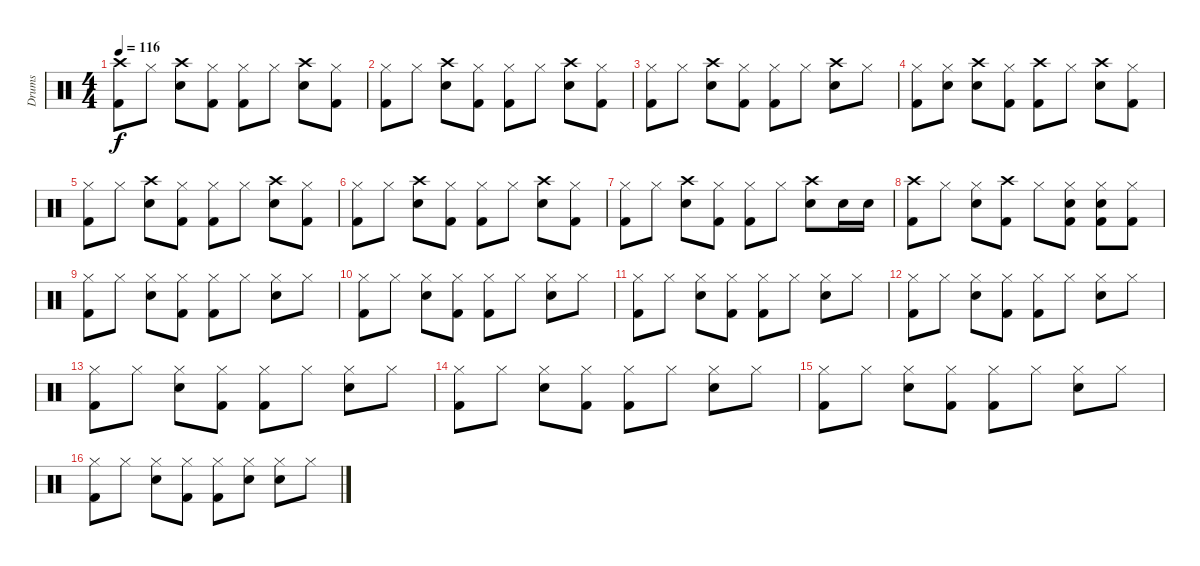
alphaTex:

\track ("Drums" "Drums") {instrument percussion}
\staff {score}
\articulation defaults
\ts (4 4)
\tempo 116
\clef neutral
\ks c
("Crash high (hit)" "Kick (hit) 2").8{dy f} "Hi-Hat (closed)".8 ("Crash high (hit)" "Electric Snare (hit)").8 ("Hi-Hat (closed)" "Kick (hit) 2").8 ("Hi-Hat (closed)" "Kick (hit) 2").8 "Hi-Hat (closed)".8 ("Crash high (hit)" "Electric Snare (hit)").8 ("Hi-Hat (closed)" "Kick (hit) 2").8 |
("Hi-Hat (closed)" "Kick (hit) 2").8 "Hi-Hat (closed)".8 ("Crash high (hit)" "Electric Snare (hit)").8 ("Hi-Hat (closed)" "Kick (hit) 2").8 ("Hi-Hat (closed)" "Kick (hit) 2").8 "Hi-Hat (closed)".8 ("Crash high (hit)" "Electric Snare (hit)").8 ("Hi-Hat (closed)" "Kick (hit) 2").8 |
("Hi-Hat (closed)" "Kick (hit) 2").8 "Hi-Hat (closed)".8 ("Crash high (hit)" "Electric Snare (hit)").8 ("Hi-Hat (closed)" "Kick (hit) 2").8 ("Hi-Hat (closed)" "Kick (hit) 2").8 "Hi-Hat (closed)".8 ("Crash high (hit)" "Electric Snare (hit)").8 "Hi-Hat (closed)".8 |
("Hi-Hat (closed)" "Kick (hit) 2").8 ("Hi-Hat (closed)" "Electric Snare (hit)").8 ("Crash high (hit)" "Electric Snare (hit)").8 ("Hi-Hat (closed)" "Kick (hit) 2").8 ("Crash high (hit)" "Kick (hit) 2").8 "Hi-Hat (closed)".8 ("Crash high (hit)" "Electric Snare (hit)").8 ("Hi-Hat (closed)" "Kick (hit) 2").8 |
("Hi-Hat (closed)" "Kick (hit) 2").8 "Hi-Hat (closed)".8 ("Crash high (hit)" "Electric Snare (hit)").8 ("Hi-Hat (closed)" "Kick (hit) 2").8 ("Hi-Hat (closed)" "Kick (hit) 2").8 "Hi-Hat (closed)".8 ("Crash high (hit)" "Electric Snare (hit)").8 ("Hi-Hat (closed)" "Kick (hit) 2").8 |
("Hi-Hat (closed)" "Kick (hit) 2").8 "Hi-Hat (closed)".8 ("Crash high (hit)" "Electric Snare (hit)").8 ("Hi-Hat (closed)" "Kick (hit) 2").8 ("Hi-Hat (closed)" "Kick (hit) 2").8 "Hi-Hat (closed)".8 ("Crash high (hit)" "Electric Snare (hit)").8 ("Hi-Hat (closed)" "Kick (hit) 2").8 |
("Hi-Hat (closed)" "Kick (hit) 2").8 "Hi-Hat (closed)".8 ("Crash high (hit)" "Electric Snare (hit)").8 ("Hi-Hat (closed)" "Kick (hit) 2").8 ("Hi-Hat (closed)" "Kick (hit) 2").8 "Hi-Hat (closed)".8 ("Crash high (hit)" "Electric Snare (hit)").8 "Electric Snare (hit)".16 "Electric Snare (hit)".16 |
("Crash high (hit)" "Kick (hit) 2").8 "Hi-Hat (closed)".8 ("Hi-Hat (closed)" "Electric Snare (hit)").8 ("Crash high (hit)" "Kick (hit) 2").8 "Hi-Hat (closed)".8 ("Hi-Hat (closed)" "Electric Snare (hit)" "Kick (hit) 2").8 ("Hi-Hat (closed)" "Electric Snare (hit)" "Kick (hit) 2").8 ("Hi-Hat (closed)" "Kick (hit) 2").8 |
("Hi-Hat (closed)" "Kick (hit) 2").8 "Hi-Hat (closed)".8 ("Hi-Hat (closed)" "Electric Snare (hit)").8 ("Hi-Hat (closed)" "Kick (hit) 2").8 ("Hi-Hat (closed)" "Kick (hit) 2").8 "Hi-Hat (closed)".8 ("Hi-Hat (closed)" "Electric Snare (hit)").8 "Hi-Hat (closed)".8 |
("Hi-Hat (closed)" "Kick (hit) 2").8 "Hi-Hat (closed)".8 ("Hi-Hat (closed)" "Electric Snare (hit)").8 ("Hi-Hat (closed)" "Kick (hit) 2").8 ("Hi-Hat (closed)" "Kick (hit) 2").8 "Hi-Hat (closed)".8 ("Hi-Hat (closed)" "Electric Snare (hit)").8 "Hi-Hat (closed)".8 |
("Hi-Hat (closed)" "Kick (hit) 2").8 "Hi-Hat (closed)".8 ("Hi-Hat (closed)" "Electric Snare (hit)").8 ("Hi-Hat (closed)" "Kick (hit) 2").8 ("Hi-Hat (closed)" "Kick (hit) 2").8 "Hi-Hat (closed)".8 ("Hi-Hat (closed)" "Electric Snare (hit)").8 "Hi-Hat (closed)".8 |
("Hi-Hat (closed)" "Kick (hit) 2").8 "Hi-Hat (closed)".8 ("Hi-Hat (closed)" "Electric Snare (hit)").8 ("Hi-Hat (closed)" "Kick (hit) 2").8 ("Hi-Hat (closed)" "Kick (hit) 2").8 "Hi-Hat (closed)".8 ("Hi-Hat (closed)" "Electric Snare (hit)").8 "Hi-Hat (closed)".8 |
("Hi-Hat (closed)" "Kick (hit) 2").8 "Hi-Hat (closed)".8 ("Hi-Hat (closed)" "Electric Snare (hit)").8 ("Hi-Hat (closed)" "Kick (hit) 2").8 ("Hi-Hat (closed)" "Kick (hit) 2").8 "Hi-Hat (closed)".8 ("Hi-Hat (closed)" "Electric Snare (hit)").8 "Hi-Hat (closed)".8 |
("Hi-Hat (closed)" "Kick (hit) 2").8 "Hi-Hat (closed)".8 ("Hi-Hat (closed)" "Electric Snare (hit)").8 ("Hi-Hat (closed)" "Kick (hit) 2").8 ("Hi-Hat (closed)" "Kick (hit) 2").8 "Hi-Hat (closed)".8 ("Hi-Hat (closed)" "Electric Snare (hit)").8 "Hi-Hat (closed)".8 |
("Hi-Hat (closed)" "Kick (hit) 2").8 "Hi-Hat (closed)".8 ("Hi-Hat (closed)" "Electric Snare (hit)").8 ("Hi-Hat (closed)" "Kick (hit) 2").8 ("Hi-Hat (closed)" "Kick (hit) 2").8 "Hi-Hat (closed)".8 ("Hi-Hat (closed)" "Electric Snare (hit)").8 "Hi-Hat (closed)".8 |
("Hi-Hat (closed)" "Kick (hit) 2").8 "Hi-Hat (closed)".8 ("Hi-Hat (closed)" "Electric Snare (hit)").8 ("Hi-Hat (closed)" "Kick (hit) 2").8 ("Hi-Hat (closed)" "Kick (hit) 2").8 ("Hi-Hat (closed)" "Electric Snare (hit)").8 ("Hi-Hat (closed)" "Electric Snare (hit)").8 "Hi-Hat (closed)".8
